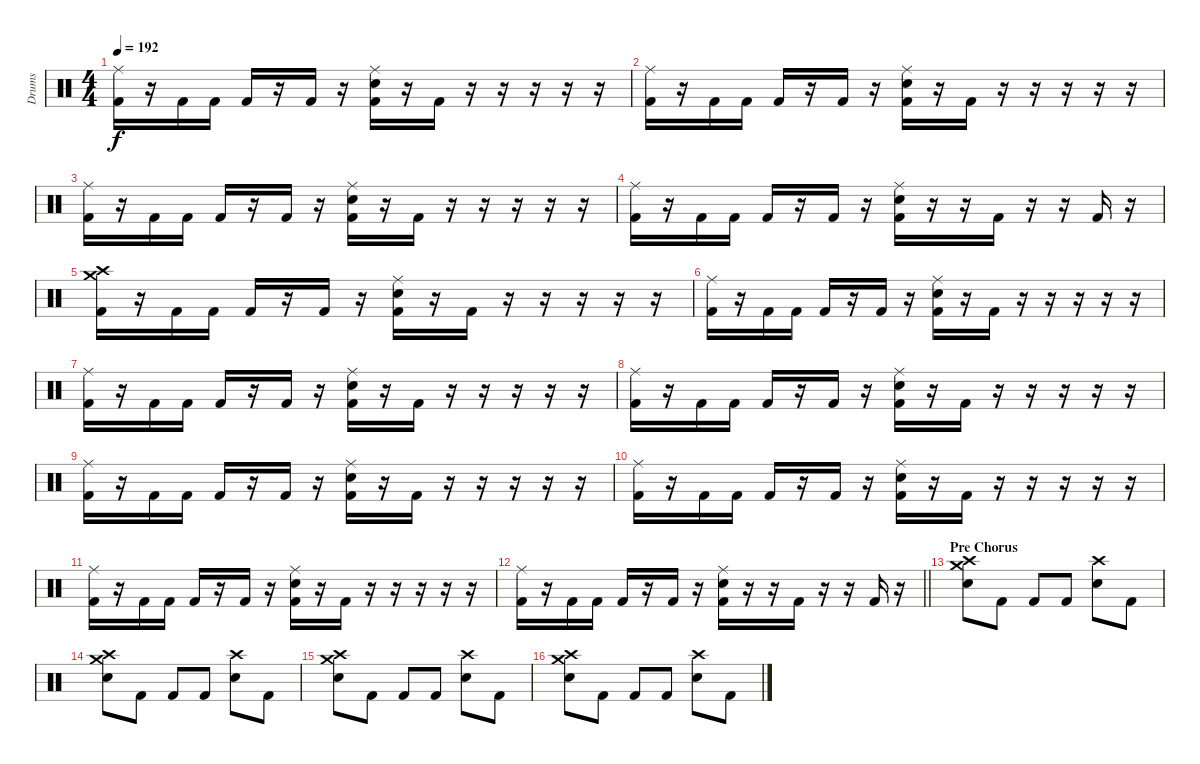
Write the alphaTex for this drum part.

\track ("Drums" "Drums") {instrument percussion}
\staff {score}
\articulation defaults
\ts (4 4)
\tempo 192
\clef neutral
\ks c
("Ride (middle)" "Kick (hit) 2").16{dy f} r.16 "Kick (hit) 2".16 "Kick (hit) 2".16 "Kick (hit) 2".16 r.16 "Kick (hit) 2".16 r.16 ("Ride (middle)" "Snare (hit) 2" "Kick (hit) 2").16 r.16 "Kick (hit) 2".16 r.16 r.16 r.16 r.16 r.16 |
("Ride (middle)" "Kick (hit) 2").16 r.16 "Kick (hit) 2".16 "Kick (hit) 2".16 "Kick (hit) 2".16 r.16 "Kick (hit) 2".16 r.16 ("Ride (middle)" "Snare (hit) 2" "Kick (hit) 2").16 r.16 "Kick (hit) 2".16 r.16 r.16 r.16 r.16 r.16 |
("Ride (middle)" "Kick (hit) 2").16 r.16 "Kick (hit) 2".16 "Kick (hit) 2".16 "Kick (hit) 2".16 r.16 "Kick (hit) 2".16 r.16 ("Ride (middle)" "Snare (hit) 2" "Kick (hit) 2").16 r.16 "Kick (hit) 2".16 r.16 r.16 r.16 r.16 r.16 |
("Ride (middle)" "Kick (hit) 2").16 r.16 "Kick (hit) 2".16 "Kick (hit) 2".16 "Kick (hit) 2".16 r.16 "Kick (hit) 2".16 r.16 ("Ride (middle)" "Snare (hit) 2" "Kick (hit) 2").16 r.16 r.16 "Kick (hit) 2".16 r.16 r.16 "Kick (hit) 2".16 r.16 |
("Crash high (hit)" "Crash medium (hit)" "Kick (hit) 2").16 r.16 "Kick (hit) 2".16 "Kick (hit) 2".16 "Kick (hit) 2".16 r.16 "Kick (hit) 2".16 r.16 ("Ride (middle)" "Snare (hit) 2" "Kick (hit) 2").16 r.16 "Kick (hit) 2".16 r.16 r.16 r.16 r.16 r.16 |
("Ride (middle)" "Kick (hit) 2").16 r.16 "Kick (hit) 2".16 "Kick (hit) 2".16 "Kick (hit) 2".16 r.16 "Kick (hit) 2".16 r.16 ("Ride (middle)" "Snare (hit) 2" "Kick (hit) 2").16 r.16 "Kick (hit) 2".16 r.16 r.16 r.16 r.16 r.16 |
("Ride (middle)" "Kick (hit) 2").16 r.16 "Kick (hit) 2".16 "Kick (hit) 2".16 "Kick (hit) 2".16 r.16 "Kick (hit) 2".16 r.16 ("Ride (middle)" "Snare (hit) 2" "Kick (hit) 2").16 r.16 "Kick (hit) 2".16 r.16 r.16 r.16 r.16 r.16 |
("Ride (middle)" "Kick (hit) 2").16 r.16 "Kick (hit) 2".16 "Kick (hit) 2".16 "Kick (hit) 2".16 r.16 "Kick (hit) 2".16 r.16 ("Ride (middle)" "Snare (hit) 2" "Kick (hit) 2").16 r.16 "Kick (hit) 2".16 r.16 r.16 r.16 r.16 r.16 |
("Ride (middle)" "Kick (hit) 2").16 r.16 "Kick (hit) 2".16 "Kick (hit) 2".16 "Kick (hit) 2".16 r.16 "Kick (hit) 2".16 r.16 ("Ride (middle)" "Snare (hit) 2" "Kick (hit) 2").16 r.16 "Kick (hit) 2".16 r.16 r.16 r.16 r.16 r.16 |
("Ride (middle)" "Kick (hit) 2").16 r.16 "Kick (hit) 2".16 "Kick (hit) 2".16 "Kick (hit) 2".16 r.16 "Kick (hit) 2".16 r.16 ("Ride (middle)" "Snare (hit) 2" "Kick (hit) 2").16 r.16 "Kick (hit) 2".16 r.16 r.16 r.16 r.16 r.16 |
("Ride (middle)" "Kick (hit) 2").16 r.16 "Kick (hit) 2".16 "Kick (hit) 2".16 "Kick (hit) 2".16 r.16 "Kick (hit) 2".16 r.16 ("Ride (middle)" "Snare (hit) 2" "Kick (hit) 2").16 r.16 "Kick (hit) 2".16 r.16 r.16 r.16 r.16 r.16 |
\barLineRight lightlight
("Ride (middle)" "Kick (hit) 2").16 r.16 "Kick (hit) 2".16 "Kick (hit) 2".16 "Kick (hit) 2".16 r.16 "Kick (hit) 2".16 r.16 ("Ride (middle)" "Snare (hit) 2" "Kick (hit) 2").16 r.16 r.16 "Kick (hit) 2".16 r.16 r.16 "Kick (hit) 2".16 r.16 |
\section ("" "Pre Chorus")
("Crash high (hit)" "Crash medium (hit)" "Snare (hit) 2").8 "Kick (hit) 2".8 "Kick (hit) 2".8 "Kick (hit) 2".8 ("Crash high (hit)" "Snare (hit) 2").8 "Kick (hit) 2".8 |
("Crash high (hit)" "Crash medium (hit)" "Snare (hit) 2").8 "Kick (hit) 2".8 "Kick (hit) 2".8 "Kick (hit) 2".8 ("Crash high (hit)" "Snare (hit) 2").8 "Kick (hit) 2".8 |
("Crash high (hit)" "Crash medium (hit)" "Snare (hit) 2").8 "Kick (hit) 2".8 "Kick (hit) 2".8 "Kick (hit) 2".8 ("Crash high (hit)" "Snare (hit) 2").8 "Kick (hit) 2".8 |
("Crash high (hit)" "Crash medium (hit)" "Snare (hit) 2").8 "Kick (hit) 2".8 "Kick (hit) 2".8 "Kick (hit) 2".8 ("Crash high (hit)" "Snare (hit) 2").8 "Kick (hit) 2".8
